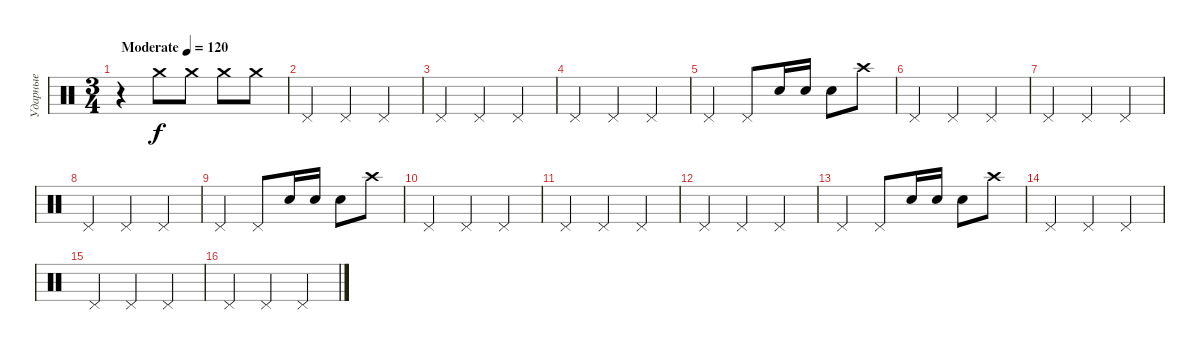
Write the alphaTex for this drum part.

\track ("Ударные" "Ударные") {instrument percussion}
\staff {score}
\articulation defaults
\ts (3 4)
\tempo (120 "Moderate")
\clef neutral
\ks c
r.4{dy f} "Crash medium (hit)".8 "Crash medium (hit)".8 "Crash medium (hit)".8 "Crash medium (hit)".8 |
"Pedal Hi-Hat (hit)".4 "Pedal Hi-Hat (hit)".4 "Pedal Hi-Hat (hit)".4 |
"Pedal Hi-Hat (hit)".4 "Pedal Hi-Hat (hit)".4 "Pedal Hi-Hat (hit)".4 |
"Pedal Hi-Hat (hit)".4 "Pedal Hi-Hat (hit)".4 "Pedal Hi-Hat (hit)".4 |
"Pedal Hi-Hat (hit)".4 "Pedal Hi-Hat (hit)".8 "Snare (hit) 2".16 "Snare (hit) 2".16 "Snare (hit) 2".8 "Crash high (hit)".8 |
"Pedal Hi-Hat (hit)".4 "Pedal Hi-Hat (hit)".4 "Pedal Hi-Hat (hit)".4 |
"Pedal Hi-Hat (hit)".4 "Pedal Hi-Hat (hit)".4 "Pedal Hi-Hat (hit)".4 |
"Pedal Hi-Hat (hit)".4 "Pedal Hi-Hat (hit)".4 "Pedal Hi-Hat (hit)".4 |
"Pedal Hi-Hat (hit)".4 "Pedal Hi-Hat (hit)".8 "Snare (hit) 2".16 "Snare (hit) 2".16 "Snare (hit) 2".8 "Crash high (hit)".8 |
"Pedal Hi-Hat (hit)".4 "Pedal Hi-Hat (hit)".4 "Pedal Hi-Hat (hit)".4 |
"Pedal Hi-Hat (hit)".4 "Pedal Hi-Hat (hit)".4 "Pedal Hi-Hat (hit)".4 |
"Pedal Hi-Hat (hit)".4 "Pedal Hi-Hat (hit)".4 "Pedal Hi-Hat (hit)".4 |
"Pedal Hi-Hat (hit)".4 "Pedal Hi-Hat (hit)".8 "Snare (hit) 2".16 "Snare (hit) 2".16 "Snare (hit) 2".8 "Crash high (hit)".8 |
"Pedal Hi-Hat (hit)".4 "Pedal Hi-Hat (hit)".4 "Pedal Hi-Hat (hit)".4 |
"Pedal Hi-Hat (hit)".4 "Pedal Hi-Hat (hit)".4 "Pedal Hi-Hat (hit)".4 |
"Pedal Hi-Hat (hit)".4 "Pedal Hi-Hat (hit)".4 "Pedal Hi-Hat (hit)".4
